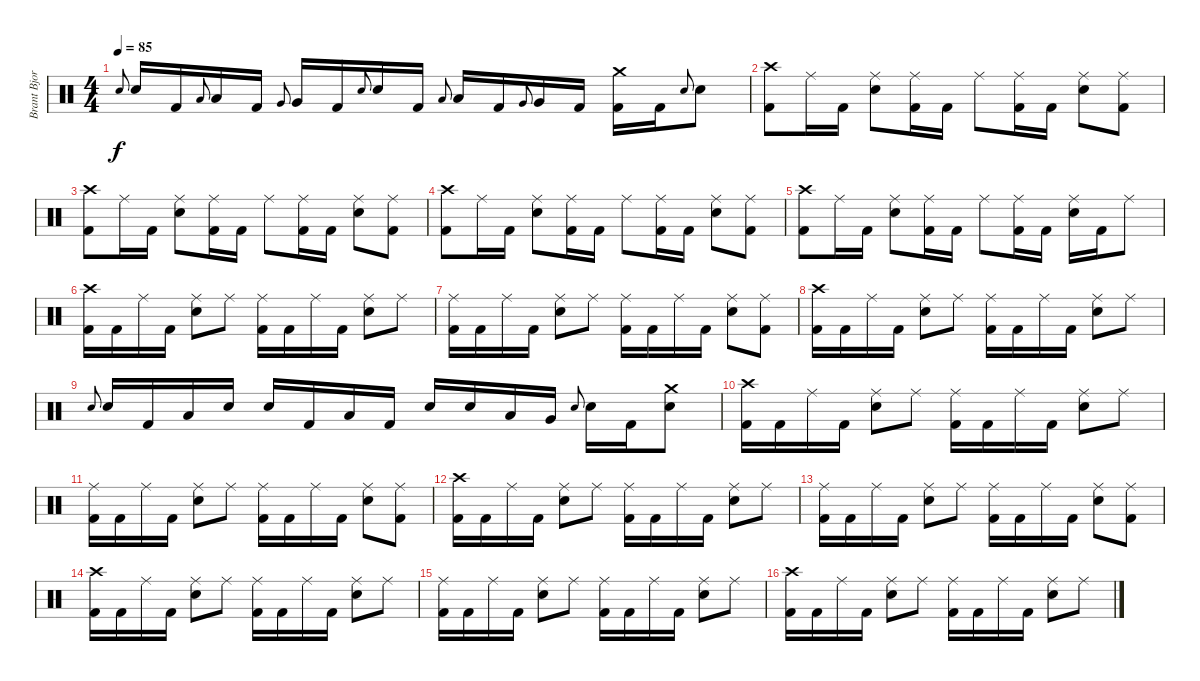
\track ("Brant Bjork" "Brant Bjor") {instrument percussion}
\staff {score}
\articulation defaults
\ts (4 4)
\tempo 85
\clef neutral
\ks c "Electric Snare (hit)".8{gr onbeat dy f} "Electric Snare (hit)".16 "Kick (hit) 2".16 "Low Tom (hit)".8{gr onbeat} "Low Tom (hit)".16 "Kick (hit) 2".16 "Very Low Tom (hit)".8{gr onbeat} "Very Low Tom (hit)".16 "Kick (hit) 2".16 "Electric Snare (hit)".8{gr onbeat} "Electric Snare (hit)".16 "Kick (hit) 2".16 "Low Tom (hit)".8{gr onbeat} "Low Tom (hit)".16 "Kick (hit) 2".16 "Very Low Tom (hit)".8{gr onbeat} "Very Low Tom (hit)".16 "Kick (hit) 2".16
("Kick (hit) 2" "Crash medium (hit)").16 "Kick (hit) 2".16 "Electric Snare (hit)".8{gr onbeat} "Electric Snare (hit)".8 |
("Crash high (hit)" "Kick (hit) 2").8 "Ride (middle)".16 "Kick (hit) 2".16 ("Ride (middle)" "Electric Snare (hit)").8 ("Ride (middle)" "Kick (hit) 2").16 "Kick (hit) 2".16 "Ride (middle)".8 ("Ride (middle)" "Kick (hit) 2").16 "Kick (hit) 2".16 ("Ride (middle)" "Electric Snare (hit)").8 ("Ride (middle)" "Kick (hit) 2").8 |
("Crash high (hit)" "Kick (hit) 2").8 "Ride (middle)".16 "Kick (hit) 2".16 ("Ride (middle)" "Electric Snare (hit)").8 ("Ride (middle)" "Kick (hit) 2").16 "Kick (hit) 2".16 "Ride (middle)".8 ("Ride (middle)" "Kick (hit) 2").16 "Kick (hit) 2".16 ("Ride (middle)" "Electric Snare (hit)").8 ("Ride (middle)" "Kick (hit) 2").8 |
("Crash high (hit)" "Kick (hit) 2").8 "Ride (middle)".16 "Kick (hit) 2".16 ("Ride (middle)" "Electric Snare (hit)").8 ("Ride (middle)" "Kick (hit) 2").16 "Kick (hit) 2".16 "Ride (middle)".8 ("Ride (middle)" "Kick (hit) 2").16 "Kick (hit) 2".16 ("Ride (middle)" "Electric Snare (hit)").8 ("Ride (middle)" "Kick (hit) 2").8 |
("Crash high (hit)" "Kick (hit) 2").8 "Ride (middle)".16 "Kick (hit) 2".16 ("Ride (middle)" "Electric Snare (hit)").8 ("Ride (middle)" "Kick (hit) 2").16 "Kick (hit) 2".16 "Ride (middle)".8 ("Ride (middle)" "Kick (hit) 2").16 "Kick (hit) 2".16 ("Ride (middle)" "Electric Snare (hit)").16 "Kick (hit) 2".16 "Ride (middle)".8 |
("Crash high (hit)" "Kick (hit) 2").16 "Kick (hit) 2".16 "Ride (middle)".16 "Kick (hit) 2".16 ("Ride (middle)" "Electric Snare (hit)").8 "Ride (middle)".8 ("Ride (middle)" "Kick (hit) 2").16 "Kick (hit) 2".16 "Ride (middle)".16 "Kick (hit) 2".16 ("Ride (middle)" "Electric Snare (hit)").8 "Ride (middle)".8 |
("Ride (middle)" "Kick (hit) 2").16 "Kick (hit) 2".16 "Ride (middle)".16 "Kick (hit) 2".16 ("Ride (middle)" "Electric Snare (hit)").8 "Ride (middle)".8 ("Ride (middle)" "Kick (hit) 2").16 "Kick (hit) 2".16 "Ride (middle)".16 "Kick (hit) 2".16 ("Ride (middle)" "Electric Snare (hit)").8 ("Ride (middle)" "Kick (hit) 2").8 |
("Crash high (hit)" "Kick (hit) 2").16 "Kick (hit) 2".16 "Ride (middle)".16 "Kick (hit) 2".16 ("Ride (middle)" "Electric Snare (hit)").8 "Ride (middle)".8 ("Ride (middle)" "Kick (hit) 2").16 "Kick (hit) 2".16 "Ride (middle)".16 "Kick (hit) 2".16 ("Ride (middle)" "Electric Snare (hit)").8 "Ride (middle)".8 |
"Electric Snare (hit)".8{gr onbeat} "Electric Snare (hit)".16 "Kick (hit) 2".16 "Low Tom (hit)".16 "Electric Snare (hit)".16 "Electric Snare (hit)".16 "Kick (hit) 2".16 "Low Tom (hit)".16 "Kick (hit) 2".16 "Electric Snare (hit)".16 "Electric Snare (hit)".16 "Low Tom (hit)".16 "Very Low Tom (hit)".16 "Electric Snare (hit)".8{gr onbeat} "Electric Snare (hit)".16 "Kick (hit) 2".16 ("Crash medium (hit)" "Electric Snare (hit)").8 |
("Crash high (hit)" "Kick (hit) 2").16 "Kick (hit) 2".16 "Ride (middle)".16 "Kick (hit) 2".16 ("Ride (middle)" "Electric Snare (hit)").8 "Ride (middle)".8 ("Ride (middle)" "Kick (hit) 2").16 "Kick (hit) 2".16 "Ride (middle)".16 "Kick (hit) 2".16 ("Ride (middle)" "Electric Snare (hit)").8 "Ride (middle)".8 |
("Ride (middle)" "Kick (hit) 2").16 "Kick (hit) 2".16 "Ride (middle)".16 "Kick (hit) 2".16 ("Ride (middle)" "Electric Snare (hit)").8 "Ride (middle)".8 ("Ride (middle)" "Kick (hit) 2").16 "Kick (hit) 2".16 "Ride (middle)".16 "Kick (hit) 2".16 ("Ride (middle)" "Electric Snare (hit)").8 ("Ride (middle)" "Kick (hit) 2").8 |
("Crash high (hit)" "Kick (hit) 2").16 "Kick (hit) 2".16 "Ride (middle)".16 "Kick (hit) 2".16 ("Ride (middle)" "Electric Snare (hit)").8 "Ride (middle)".8 ("Ride (middle)" "Kick (hit) 2").16 "Kick (hit) 2".16 "Ride (middle)".16 "Kick (hit) 2".16 ("Ride (middle)" "Electric Snare (hit)").8 "Ride (middle)".8 |
("Ride (middle)" "Kick (hit) 2").16 "Kick (hit) 2".16 "Ride (middle)".16 "Kick (hit) 2".16 ("Ride (middle)" "Electric Snare (hit)").8 "Ride (middle)".8 ("Ride (middle)" "Kick (hit) 2").16 "Kick (hit) 2".16 "Ride (middle)".16 "Kick (hit) 2".16 ("Ride (middle)" "Electric Snare (hit)").8 ("Ride (middle)" "Kick (hit) 2").8 |
("Crash high (hit)" "Kick (hit) 2").16 "Kick (hit) 2".16 "Ride (middle)".16 "Kick (hit) 2".16 ("Ride (middle)" "Electric Snare (hit)").8 "Ride (middle)".8 ("Ride (middle)" "Kick (hit) 2").16 "Kick (hit) 2".16 "Ride (middle)".16 "Kick (hit) 2".16 ("Ride (middle)" "Electric Snare (hit)").8 "Ride (middle)".8 |
("Ride (middle)" "Kick (hit) 2").16 "Kick (hit) 2".16 "Ride (middle)".16 "Kick (hit) 2".16 ("Ride (middle)" "Electric Snare (hit)").8 "Ride (middle)".8 ("Ride (middle)" "Kick (hit) 2").16 "Kick (hit) 2".16 "Ride (middle)".16 "Kick (hit) 2".16 ("Ride (middle)" "Electric Snare (hit)").8 "Ride (middle)".8 |
("Crash high (hit)" "Kick (hit) 2").16 "Kick (hit) 2".16 "Ride (middle)".16 "Kick (hit) 2".16 ("Ride (middle)" "Electric Snare (hit)").8 "Ride (middle)".8 ("Ride (middle)" "Kick (hit) 2").16 "Kick (hit) 2".16 "Ride (middle)".16 "Kick (hit) 2".16 ("Ride (middle)" "Electric Snare (hit)").8 "Ride (middle)".8
